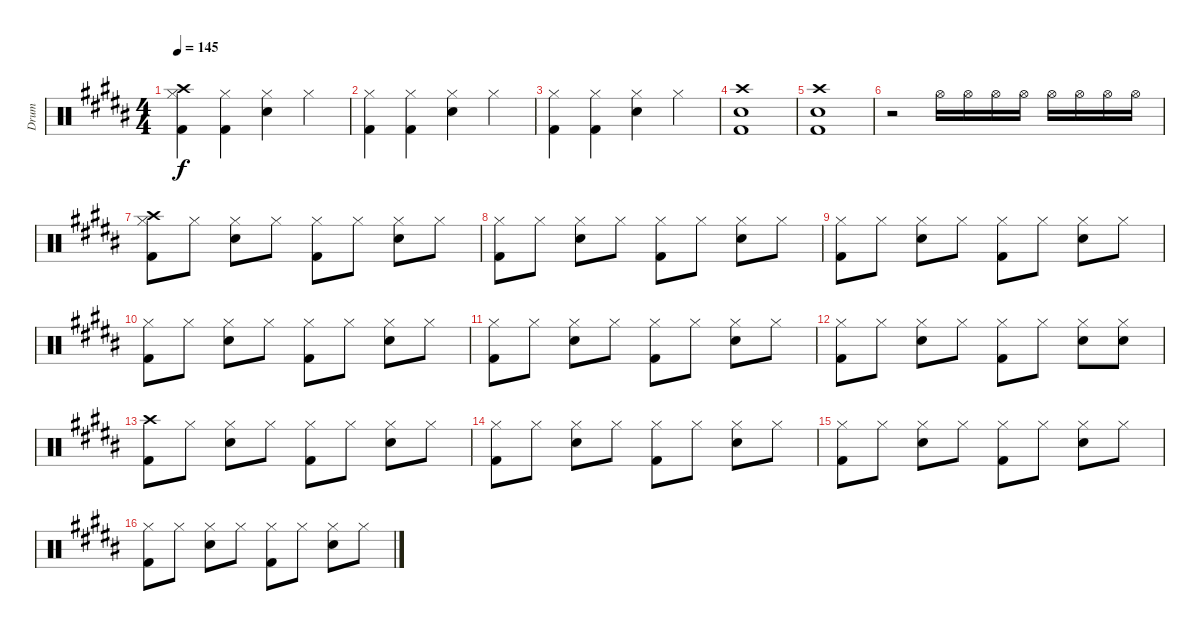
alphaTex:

\track ("Drum" "Drum") {instrument percussion}
\staff {score}
\articulation defaults
\ts (4 4)
\tempo 145
\clef neutral
\ks b
("Hi-Hat (closed)" "Kick (hit) 2" "Crash high (hit)").4{dy f} ("Hi-Hat (closed)" "Kick (hit) 2").4 ("Hi-Hat (closed)" "Electric Snare (hit)").4 "Hi-Hat (closed)".4 |
("Hi-Hat (closed)" "Kick (hit) 2").4 ("Hi-Hat (closed)" "Kick (hit) 2").4 ("Hi-Hat (closed)" "Electric Snare (hit)").4 "Hi-Hat (closed)".4 |
("Hi-Hat (closed)" "Kick (hit) 2").4 ("Hi-Hat (closed)" "Kick (hit) 2").4 ("Hi-Hat (closed)" "Electric Snare (hit)").4 "Hi-Hat (closed)".4 |
("Crash high (hit)" "Kick (hit) 2" "Electric Snare (hit)").1 |
("Crash high (hit)" "Kick (hit) 2" "Electric Snare (hit)").1 |
r.2 "Hi-Hat (open)".16 "Hi-Hat (open)".16 "Hi-Hat (open)".16 "Hi-Hat (open)".16 "Hi-Hat (open)".16 "Hi-Hat (open)".16 "Hi-Hat (open)".16 "Hi-Hat (open)".16 |
("Hi-Hat (closed)" "Kick (hit) 2" "Crash high (hit)").8 "Hi-Hat (closed)".8 ("Hi-Hat (closed)" "Electric Snare (hit)").8 "Hi-Hat (closed)".8 ("Hi-Hat (closed)" "Kick (hit) 2").8 "Hi-Hat (closed)".8 ("Hi-Hat (closed)" "Electric Snare (hit)").8 "Hi-Hat (closed)".8 |
("Hi-Hat (closed)" "Kick (hit) 2").8 "Hi-Hat (closed)".8 ("Hi-Hat (closed)" "Electric Snare (hit)").8 "Hi-Hat (closed)".8 ("Hi-Hat (closed)" "Kick (hit) 2").8 "Hi-Hat (closed)".8 ("Hi-Hat (closed)" "Electric Snare (hit)").8 "Hi-Hat (closed)".8 |
("Hi-Hat (closed)" "Kick (hit) 2").8 "Hi-Hat (closed)".8 ("Hi-Hat (closed)" "Electric Snare (hit)").8 "Hi-Hat (closed)".8 ("Hi-Hat (closed)" "Kick (hit) 2").8 "Hi-Hat (closed)".8 ("Hi-Hat (closed)" "Electric Snare (hit)").8 "Hi-Hat (closed)".8 |
("Hi-Hat (closed)" "Kick (hit) 2").8 "Hi-Hat (closed)".8 ("Hi-Hat (closed)" "Electric Snare (hit)").8 "Hi-Hat (closed)".8 ("Hi-Hat (closed)" "Kick (hit) 2").8 "Hi-Hat (closed)".8 ("Hi-Hat (closed)" "Electric Snare (hit)").8 "Hi-Hat (closed)".8 |
("Hi-Hat (closed)" "Kick (hit) 2").8 "Hi-Hat (closed)".8 ("Hi-Hat (closed)" "Electric Snare (hit)").8 "Hi-Hat (closed)".8 ("Hi-Hat (closed)" "Kick (hit) 2").8 "Hi-Hat (closed)".8 ("Hi-Hat (closed)" "Electric Snare (hit)").8 "Hi-Hat (closed)".8 |
("Hi-Hat (closed)" "Kick (hit) 2").8 "Hi-Hat (closed)".8 ("Hi-Hat (closed)" "Electric Snare (hit)").8 "Hi-Hat (closed)".8 ("Hi-Hat (closed)" "Kick (hit) 2").8 "Hi-Hat (closed)".8 ("Hi-Hat (closed)" "Electric Snare (hit)").8 ("Hi-Hat (closed)" "Electric Snare (hit)").8 |
("Kick (hit) 2" "Crash high (hit)").8 "Hi-Hat (closed)".8 ("Hi-Hat (closed)" "Electric Snare (hit)").8 "Hi-Hat (closed)".8 ("Hi-Hat (closed)" "Kick (hit) 2").8 "Hi-Hat (closed)".8 ("Hi-Hat (closed)" "Electric Snare (hit)").8 "Hi-Hat (closed)".8 |
("Hi-Hat (closed)" "Kick (hit) 2").8 "Hi-Hat (closed)".8 ("Hi-Hat (closed)" "Electric Snare (hit)").8 "Hi-Hat (closed)".8 ("Hi-Hat (closed)" "Kick (hit) 2").8 "Hi-Hat (closed)".8 ("Hi-Hat (closed)" "Electric Snare (hit)").8 "Hi-Hat (closed)".8 |
("Hi-Hat (closed)" "Kick (hit) 2").8 "Hi-Hat (closed)".8 ("Hi-Hat (closed)" "Electric Snare (hit)").8 "Hi-Hat (closed)".8 ("Hi-Hat (closed)" "Kick (hit) 2").8 "Hi-Hat (closed)".8 ("Hi-Hat (closed)" "Electric Snare (hit)").8 "Hi-Hat (closed)".8 |
("Hi-Hat (closed)" "Kick (hit) 2").8 "Hi-Hat (closed)".8 ("Hi-Hat (closed)" "Electric Snare (hit)").8 "Hi-Hat (closed)".8 ("Hi-Hat (closed)" "Kick (hit) 2").8 "Hi-Hat (closed)".8 ("Hi-Hat (closed)" "Electric Snare (hit)").8 "Hi-Hat (closed)".8
